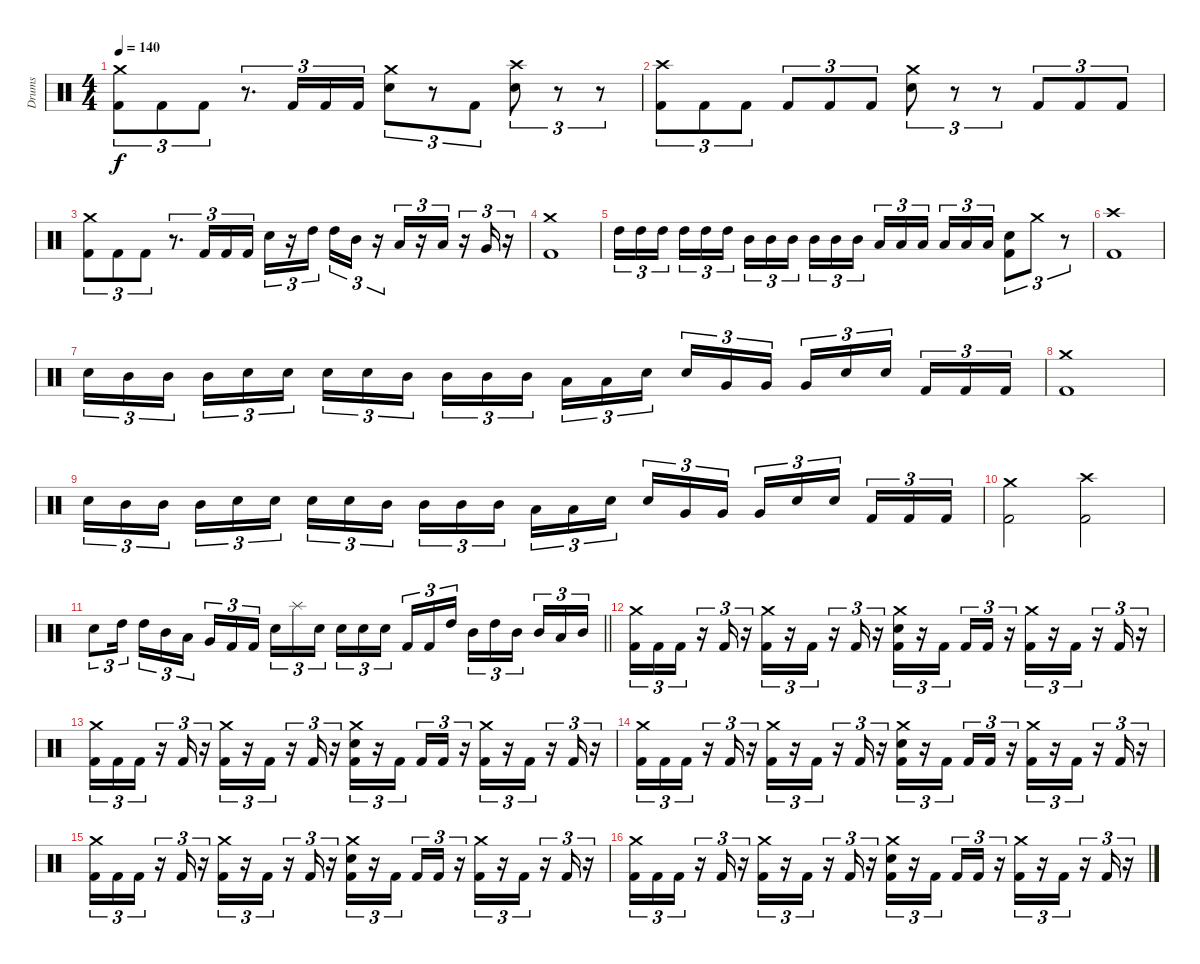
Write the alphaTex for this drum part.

\track ("Drums" "Drums") {instrument percussion}
\staff {score}
\articulation defaults
\ts (4 4)
\tempo 140
\clef neutral
\ks c
("Crash medium (hit)" "Kick (hit) 2").8{tu (3 2) dy f} "Kick (hit) 2".8{tu (3 2)} "Kick (hit) 2".8{tu (3 2)} r.8{d tu (3 2)} "Kick (hit) 2".16{tu (3 2)} "Kick (hit) 2".16{tu (3 2)} "Kick (hit) 2".16{tu (3 2)} ("Crash medium (hit)" "Electric Snare (hit)").8{tu (3 2)} r.8{tu (3 2)} "Kick (hit) 2".8{tu (3 2)} ("Crash high (hit)" "Electric Snare (hit)").8{tu (3 2)} r.8{tu (3 2)} r.8{tu (3 2)} |
("Crash high (hit)" "Kick (hit) 2").8{tu (3 2)} "Kick (hit) 2".8{tu (3 2)} "Kick (hit) 2".8{tu (3 2)} "Kick (hit) 2".8{tu (3 2)} "Kick (hit) 2".8{tu (3 2)} "Kick (hit) 2".8{tu (3 2)} ("Crash medium (hit)" "Electric Snare (hit)").8{tu (3 2)} r.8{tu (3 2)} r.8{tu (3 2)} "Kick (hit) 2".8{tu (3 2)} "Kick (hit) 2".8{tu (3 2)} "Kick (hit) 2".8{tu (3 2)} |
("Crash medium (hit)" "Kick (hit) 2").8{tu (3 2)} "Kick (hit) 2".8{tu (3 2)} "Kick (hit) 2".8{tu (3 2)} r.8{d tu (3 2)} "Kick (hit) 2".16{tu (3 2)} "Kick (hit) 2".16{tu (3 2)} "Kick (hit) 2".16{tu (3 2)} "Electric Snare (hit)".16{tu (3 2)} r.16{tu (3 2)} "High Tom (hit)".16{tu (3 2) beam splitsecondary} "High Tom (hit)".16{tu (3 2)} "Mid Tom (hit)".16{tu (3 2)} r.16{tu (3 2)} "Low Tom (hit)".16{tu (3 2)} r.16{tu (3 2)} "Low Tom (hit)".16{tu (3 2)} r.16{tu (3 2)} "Very Low Tom (hit)".16{tu (3 2)} r.16{tu (3 2)} |
("Crash medium (hit)" "Kick (hit) 2").1 |
"High Tom (hit)".16{tu (3 2)} "High Tom (hit)".16{tu (3 2)} "High Tom (hit)".16{tu (3 2) beam splitsecondary} "High Tom (hit)".16{tu (3 2)} "High Tom (hit)".16{tu (3 2)} "High Tom (hit)".16{tu (3 2)} "Mid Tom (hit)".16{tu (3 2)} "Mid Tom (hit)".16{tu (3 2)} "Mid Tom (hit)".16{tu (3 2) beam splitsecondary} "Mid Tom (hit)".16{tu (3 2)} "Mid Tom (hit)".16{tu (3 2)} "Mid Tom (hit)".16{tu (3 2)} "Low Tom (hit)".16{tu (3 2)} "Low Tom (hit)".16{tu (3 2)} "Low Tom (hit)".16{tu (3 2) beam splitsecondary} "Low Tom (hit)".16{tu (3 2)} "Low Tom (hit)".16{tu (3 2)} "Low Tom (hit)".16{tu (3 2)} ("Electric Snare (hit)" "Kick (hit) 2").8{tu (3 2)} "Crash medium (hit)".8{tu (3 2)} r.8{tu (3 2)} |
("Crash high (hit)" "Kick (hit) 2").1 |
"Electric Snare (hit)".16{tu (3 2)} "Mid Tom (hit)".16{tu (3 2)} "Mid Tom (hit)".16{tu (3 2) beam splitsecondary} "Mid Tom (hit)".16{tu (3 2)} "Electric Snare (hit)".16{tu (3 2)} "Electric Snare (hit)".16{tu (3 2)} "Electric Snare (hit)".16{tu (3 2)} "Electric Snare (hit)".16{tu (3 2)} "Mid Tom (hit)".16{tu (3 2) beam splitsecondary} "Mid Tom (hit)".16{tu (3 2)} "Mid Tom (hit)".16{tu (3 2)} "Mid Tom (hit)".16{tu (3 2)} "Low Tom (hit)".16{tu (3 2)} "Low Tom (hit)".16{tu (3 2)} "Electric Snare (hit)".16{tu (3 2) beam splitsecondary} "Electric Snare (hit)".16{tu (3 2)} "Very Low Tom (hit)".16{tu (3 2)} "Very Low Tom (hit)".16{tu (3 2)} "Very Low Tom (hit)".16{tu (3 2)} "Electric Snare (hit)".16{tu (3 2)} "Electric Snare (hit)".16{tu (3 2) beam splitsecondary} "Kick (hit) 2".16{tu (3 2)} "Kick (hit) 2".16{tu (3 2)} "Kick (hit) 2".16{tu (3 2)} |
("Crash medium (hit)" "Kick (hit) 2").1 |
"Electric Snare (hit)".16{tu (3 2)} "Mid Tom (hit)".16{tu (3 2)} "Mid Tom (hit)".16{tu (3 2) beam splitsecondary} "Mid Tom (hit)".16{tu (3 2)} "Electric Snare (hit)".16{tu (3 2)} "Electric Snare (hit)".16{tu (3 2)} "Electric Snare (hit)".16{tu (3 2)} "Electric Snare (hit)".16{tu (3 2)} "Mid Tom (hit)".16{tu (3 2) beam splitsecondary} "Mid Tom (hit)".16{tu (3 2)} "Mid Tom (hit)".16{tu (3 2)} "Mid Tom (hit)".16{tu (3 2)} "Low Tom (hit)".16{tu (3 2)} "Low Tom (hit)".16{tu (3 2)} "Electric Snare (hit)".16{tu (3 2) beam splitsecondary} "Electric Snare (hit)".16{tu (3 2)} "Very Low Tom (hit)".16{tu (3 2)} "Very Low Tom (hit)".16{tu (3 2)} "Very Low Tom (hit)".16{tu (3 2)} "Electric Snare (hit)".16{tu (3 2)} "Electric Snare (hit)".16{tu (3 2) beam splitsecondary} "Kick (hit) 2".16{tu (3 2)} "Kick (hit) 2".16{tu (3 2)} "Kick (hit) 2".16{tu (3 2)} |
("Crash medium (hit)" "Kick (hit) 2").2 ("Crash high (hit)" "Kick (hit) 2").2 |
\barLineRight lightlight "Electric Snare (hit)".8{tu (3 2)} "High Tom (hit)".16{tu (3 2) beam splitsecondary} "High Tom (hit)".16{tu (3 2)} "Mid Tom (hit)".16{tu (3 2)} "Low Tom (hit)".16{tu (3 2)} "Very Low Tom (hit)".16{tu (3 2)} "Kick (hit) 2".16{tu (3 2)} "Kick (hit) 2".16{tu (3 2) beam splitsecondary} "Electric Snare (hit)".16{tu (3 2)} "Splash (hit)".16{tu (3 2)} "Electric Snare (hit)".16{tu (3 2)} "Electric Snare (hit)".16{tu (3 2)} "Electric Snare (hit)".16{tu (3 2)} "Electric Snare (hit)".16{tu (3 2) beam splitsecondary} "Kick (hit) 2".16{tu (3 2)} "Kick (hit) 2".16{tu (3 2)} "High Tom (hit)".16{tu (3 2)} "Mid Tom (hit)".16{tu (3 2)} "High Tom (hit)".16{tu (3 2)} "Mid Tom (hit)".16{tu (3 2) beam splitsecondary} "Mid Tom (hit)".16{tu (3 2)} "Low Tom (hit)".16{tu (3 2)} "Mid Tom (hit)".16{tu (3 2)}
|
("Crash medium (hit)" "Kick (hit) 2").16{tu (3 2)} "Kick (hit) 2".16{tu (3 2)} "Kick (hit) 2".16{tu (3 2)} r.16{tu (3 2)} "Kick (hit) 2".16{tu (3 2)} r.16{tu (3 2)} ("Crash medium (hit)" "Kick (hit) 2").16{tu (3 2)} r.16{tu (3 2)} "Kick (hit) 2".16{tu (3 2)} r.16{tu (3 2)} "Kick (hit) 2".16{tu (3 2)} r.16{tu (3 2)} ("Crash medium (hit)" "Electric Snare (hit)" "Kick (hit) 2").16{tu (3 2)} r.16{tu (3 2)} "Kick (hit) 2".16{tu (3 2) beam splitsecondary} "Kick (hit) 2".16{tu (3 2)} "Kick (hit) 2".16{tu (3 2)} r.16{tu (3 2)} ("Crash medium (hit)" "Kick (hit) 2").16{tu (3 2)} r.16{tu (3 2)} "Kick (hit) 2".16{tu (3 2)} r.16{tu (3 2)} "Kick (hit) 2".16{tu (3 2)} r.16{tu (3 2)} |
("Crash medium (hit)" "Kick (hit) 2").16{tu (3 2)} "Kick (hit) 2".16{tu (3 2)} "Kick (hit) 2".16{tu (3 2)} r.16{tu (3 2)} "Kick (hit) 2".16{tu (3 2)} r.16{tu (3 2)} ("Crash medium (hit)" "Kick (hit) 2").16{tu (3 2)} r.16{tu (3 2)} "Kick (hit) 2".16{tu (3 2)} r.16{tu (3 2)} "Kick (hit) 2".16{tu (3 2)} r.16{tu (3 2)} ("Crash medium (hit)" "Electric Snare (hit)" "Kick (hit) 2").16{tu (3 2)} r.16{tu (3 2)} "Kick (hit) 2".16{tu (3 2) beam splitsecondary} "Kick (hit) 2".16{tu (3 2)} "Kick (hit) 2".16{tu (3 2)} r.16{tu (3 2)} ("Crash medium (hit)" "Kick (hit) 2").16{tu (3 2)} r.16{tu (3 2)} "Kick (hit) 2".16{tu (3 2)} r.16{tu (3 2)} "Kick (hit) 2".16{tu (3 2)} r.16{tu (3 2)} |
("Crash medium (hit)" "Kick (hit) 2").16{tu (3 2)} "Kick (hit) 2".16{tu (3 2)} "Kick (hit) 2".16{tu (3 2)} r.16{tu (3 2)} "Kick (hit) 2".16{tu (3 2)} r.16{tu (3 2)} ("Crash medium (hit)" "Kick (hit) 2").16{tu (3 2)} r.16{tu (3 2)} "Kick (hit) 2".16{tu (3 2)} r.16{tu (3 2)} "Kick (hit) 2".16{tu (3 2)} r.16{tu (3 2)} ("Crash medium (hit)" "Electric Snare (hit)" "Kick (hit) 2").16{tu (3 2)} r.16{tu (3 2)} "Kick (hit) 2".16{tu (3 2) beam splitsecondary} "Kick (hit) 2".16{tu (3 2)} "Kick (hit) 2".16{tu (3 2)} r.16{tu (3 2)} ("Crash medium (hit)" "Kick (hit) 2").16{tu (3 2)} r.16{tu (3 2)} "Kick (hit) 2".16{tu (3 2)} r.16{tu (3 2)} "Kick (hit) 2".16{tu (3 2)} r.16{tu (3 2)} |
("Crash medium (hit)" "Kick (hit) 2").16{tu (3 2)} "Kick (hit) 2".16{tu (3 2)} "Kick (hit) 2".16{tu (3 2)} r.16{tu (3 2)} "Kick (hit) 2".16{tu (3 2)} r.16{tu (3 2)} ("Crash medium (hit)" "Kick (hit) 2").16{tu (3 2)} r.16{tu (3 2)} "Kick (hit) 2".16{tu (3 2)} r.16{tu (3 2)} "Kick (hit) 2".16{tu (3 2)} r.16{tu (3 2)} ("Crash medium (hit)" "Electric Snare (hit)" "Kick (hit) 2").16{tu (3 2)} r.16{tu (3 2)} "Kick (hit) 2".16{tu (3 2) beam splitsecondary} "Kick (hit) 2".16{tu (3 2)} "Kick (hit) 2".16{tu (3 2)} r.16{tu (3 2)} ("Crash medium (hit)" "Kick (hit) 2").16{tu (3 2)} r.16{tu (3 2)} "Kick (hit) 2".16{tu (3 2)} r.16{tu (3 2)} "Kick (hit) 2".16{tu (3 2)} r.16{tu (3 2)} |
("Crash medium (hit)" "Kick (hit) 2").16{tu (3 2)} "Kick (hit) 2".16{tu (3 2)} "Kick (hit) 2".16{tu (3 2)} r.16{tu (3 2)} "Kick (hit) 2".16{tu (3 2)} r.16{tu (3 2)} ("Crash medium (hit)" "Kick (hit) 2").16{tu (3 2)} r.16{tu (3 2)} "Kick (hit) 2".16{tu (3 2)} r.16{tu (3 2)} "Kick (hit) 2".16{tu (3 2)} r.16{tu (3 2)} ("Crash medium (hit)" "Electric Snare (hit)" "Kick (hit) 2").16{tu (3 2)} r.16{tu (3 2)} "Kick (hit) 2".16{tu (3 2) beam splitsecondary} "Kick (hit) 2".16{tu (3 2)} "Kick (hit) 2".16{tu (3 2)} r.16{tu (3 2)} ("Crash medium (hit)" "Kick (hit) 2").16{tu (3 2)} r.16{tu (3 2)} "Kick (hit) 2".16{tu (3 2)} r.16{tu (3 2)} "Kick (hit) 2".16{tu (3 2)} r.16{tu (3 2)}
